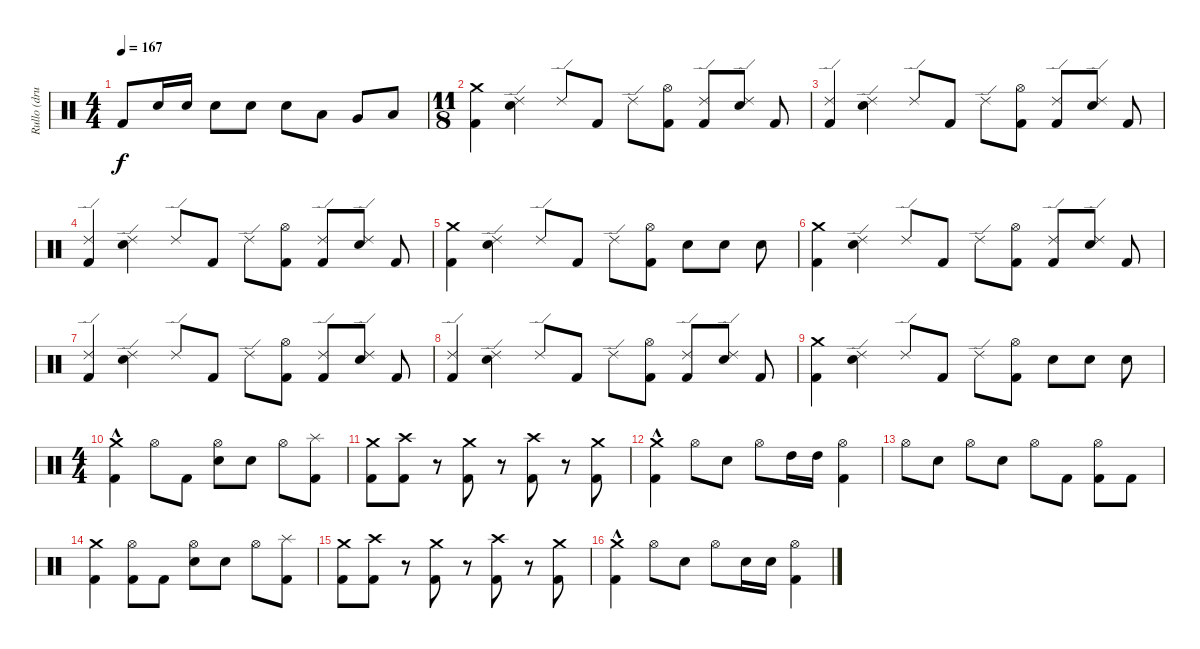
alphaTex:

\track ("Rullo (drums)" "Rullo (dru") {instrument percussion}
\staff {score}
\articulation defaults
\ts (4 4)
\tempo 167
\clef neutral
\ks c "Kick (hit) 2".8{dy f} "Electric Snare (hit)".16 "Electric Snare (hit)".16 "Electric Snare (hit)".8 "Electric Snare (hit)".8 "Electric Snare (hit)".8 "Low Tom (hit)".8 "Very Low Tom (hit)".8 "Low Floor Tom (hit)".8
|
\ts (11 8)
("Crash medium (hit)" "Kick (hit) 2").4 ("Ride (edge) 2" "Electric Snare (hit)").4 "Ride (edge) 2".8 "Kick (hit) 2".8 "Ride (edge) 2".8 ("Hi-Hat (open)" "Kick (hit) 2").8 ("Ride (edge) 2" "Kick (hit) 2").8 ("Ride (edge) 2" "Electric Snare (hit)").8 "Kick (hit) 2".8 |
("Ride (edge) 2" "Kick (hit) 2").4 ("Ride (edge) 2" "Electric Snare (hit)").4 "Ride (edge) 2".8 "Kick (hit) 2".8 "Ride (edge) 2".8 ("Hi-Hat (open)" "Kick (hit) 2").8 ("Ride (edge) 2" "Kick (hit) 2").8 ("Ride (edge) 2" "Electric Snare (hit)").8 "Kick (hit) 2".8 |
("Ride (edge) 2" "Kick (hit) 2").4 ("Ride (edge) 2" "Electric Snare (hit)").4 "Ride (edge) 2".8 "Kick (hit) 2".8 "Ride (edge) 2".8 ("Hi-Hat (open)" "Kick (hit) 2").8 ("Ride (edge) 2" "Kick (hit) 2").8 ("Ride (edge) 2" "Electric Snare (hit)").8 "Kick (hit) 2".8 |
("Crash medium (hit)" "Kick (hit) 2").4 ("Ride (edge) 2" "Electric Snare (hit)").4 "Ride (edge) 2".8 "Kick (hit) 2".8 "Ride (edge) 2".8 ("Hi-Hat (open)" "Kick (hit) 2").8 "Electric Snare (hit)".8 "Electric Snare (hit)".8 "Electric Snare (hit)".8 |
("Crash medium (hit)" "Kick (hit) 2").4 ("Ride (edge) 2" "Electric Snare (hit)").4 "Ride (edge) 2".8 "Kick (hit) 2".8 "Ride (edge) 2".8 ("Hi-Hat (open)" "Kick (hit) 2").8 ("Ride (edge) 2" "Kick (hit) 2").8 ("Ride (edge) 2" "Electric Snare (hit)").8 "Kick (hit) 2".8 |
("Ride (edge) 2" "Kick (hit) 2").4 ("Ride (edge) 2" "Electric Snare (hit)").4 "Ride (edge) 2".8 "Kick (hit) 2".8 "Ride (edge) 2".8 ("Hi-Hat (open)" "Kick (hit) 2").8 ("Ride (edge) 2" "Kick (hit) 2").8 ("Ride (edge) 2" "Electric Snare (hit)").8 "Kick (hit) 2".8 |
("Ride (edge) 2" "Kick (hit) 2").4 ("Ride (edge) 2" "Electric Snare (hit)").4 "Ride (edge) 2".8 "Kick (hit) 2".8 "Ride (edge) 2".8 ("Hi-Hat (open)" "Kick (hit) 2").8 ("Ride (edge) 2" "Kick (hit) 2").8 ("Ride (edge) 2" "Electric Snare (hit)").8 "Kick (hit) 2".8 |
("Crash medium (hit)" "Kick (hit) 2").4 ("Ride (edge) 2" "Electric Snare (hit)").4 "Ride (edge) 2".8 "Kick (hit) 2".8 "Ride (edge) 2".8 ("Hi-Hat (open)" "Kick (hit) 2").8 "Electric Snare (hit)".8 "Electric Snare (hit)".8 "Electric Snare (hit)".8 |
\ts (4 4)
("Crash medium (hit)" "Kick (hit) 2"{hac}).4 "Hi-Hat (open)".8 "Kick (hit) 2".8 ("Hi-Hat (open)" "Electric Snare (hit)").8 "Electric Snare (hit)".8 "Hi-Hat (open)".8 ("Splash (hit)" "Kick (hit) 2").8 |
("Crash medium (hit)" "Kick (hit) 2").8 ("Crash high (hit)" "Kick (hit) 2").8 r.8 ("Crash medium (hit)" "Kick (hit) 2").8 r.8 ("Crash high (hit)" "Kick (hit) 2").8 r.8 ("Crash medium (hit)" "Kick (hit) 2").8 |
("Crash medium (hit)" "Kick (hit) 2"{hac}).4 "Hi-Hat (open)".8 "Electric Snare (hit)".8 "Hi-Hat (open)".8 "High Tom (hit)".16 "High Tom (hit)".16 ("Hi-Hat (open)" "Kick (hit) 2").4 |
"Hi-Hat (open)".8 "Electric Snare (hit)".8 "Hi-Hat (open)".8 "Electric Snare (hit)".8 "Hi-Hat (open)".8 "Kick (hit) 2".8 ("Hi-Hat (open)" "Kick (hit) 2").8 "Kick (hit) 2".8 |
("Crash medium (hit)" "Kick (hit) 2").4 ("Kick (hit) 2" "Hi-Hat (open)").8 "Kick (hit) 2".8 ("Hi-Hat (open)" "Electric Snare (hit)").8 "Electric Snare (hit)".8 "Hi-Hat (open)".8 ("Splash (hit)" "Kick (hit) 2").8 |
("Crash medium (hit)" "Kick (hit) 2").8 ("Crash high (hit)" "Kick (hit) 2").8 r.8 ("Crash medium (hit)" "Kick (hit) 2").8 r.8 ("Crash high (hit)" "Kick (hit) 2").8 r.8 ("Crash medium (hit)" "Kick (hit) 2").8 |
("Crash medium (hit)" "Kick (hit) 2"{hac}).4 "Hi-Hat (open)".8 "Electric Snare (hit)".8 "Hi-Hat (open)".8 "Electric Snare (hit)".16 "Electric Snare (hit)".16 ("Hi-Hat (open)" "Kick (hit) 2").4
